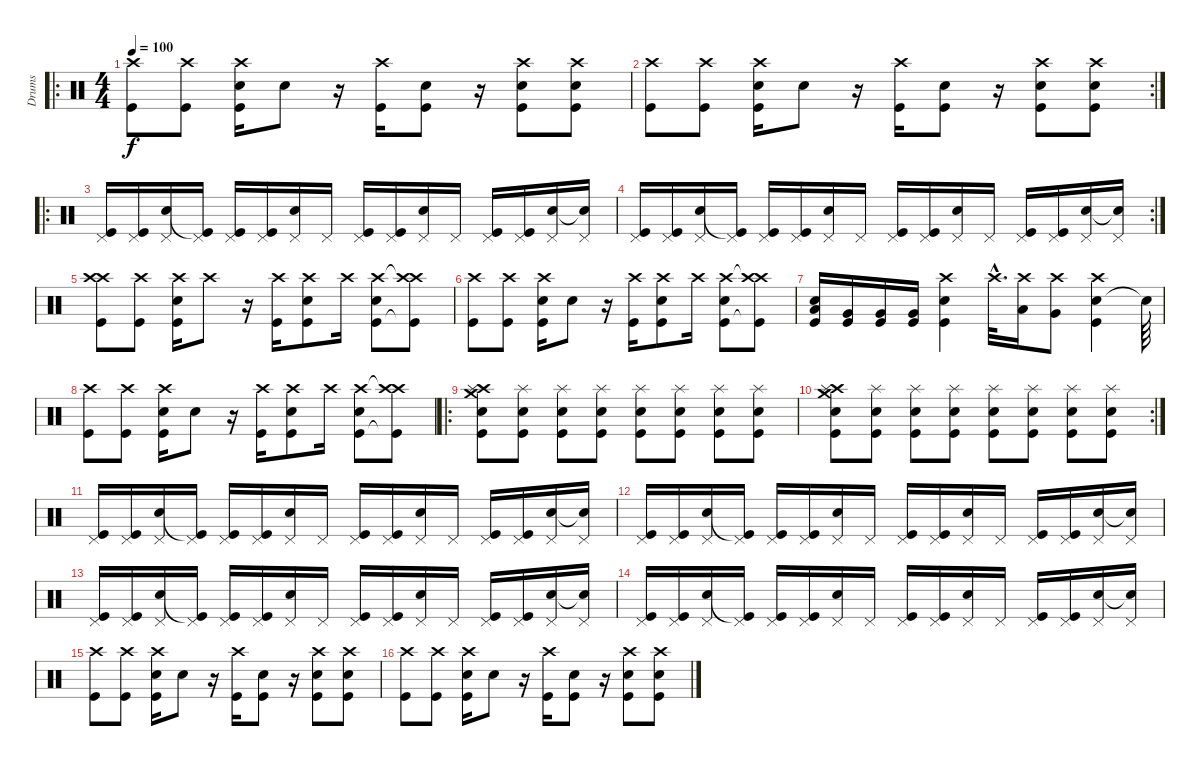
\track ("Drums" "Drums") {instrument percussion}
\staff {score}
\articulation defaults
\ro
\ts (4 4)
\tempo 100
\clef neutral
\ks c
("Crash high (hit)" "Kick (hit)").8{dy f} ("Kick (hit)" "Crash high (hit)").8 ("Crash high (hit)" "Kick (hit)" "Electric Snare (hit)").16 "Electric Snare (hit)".8 r.16 ("Kick (hit)" "Crash high (hit)").16 ("Electric Snare (hit)" "Kick (hit)").8 r.16 ("Electric Snare (hit)" "Kick (hit)" "Crash high (hit)").8 ("Electric Snare (hit)" "Kick (hit)" "Crash high (hit)").8 |
\rc 2
("Crash high (hit)" "Kick (hit)").8 ("Kick (hit)" "Crash high (hit)").8 ("Crash high (hit)" "Kick (hit)" "Electric Snare (hit)").16 "Electric Snare (hit)".8 r.16 ("Kick (hit)" "Crash high (hit)").16 ("Electric Snare (hit)" "Kick (hit)").8 r.16 ("Electric Snare (hit)" "Kick (hit)" "Crash high (hit)").8 ("Electric Snare (hit)" "Kick (hit)" "Crash high (hit)").8 |
\ro
("Kick (hit)" "Pedal Hi-Hat (hit)").16 ("Kick (hit)" "Pedal Hi-Hat (hit)").16 ("Electric Snare (hit)" "Pedal Hi-Hat (hit)").16 ("Kick (hit)"{t} "Pedal Hi-Hat (hit)").16 ("Kick (hit)" "Pedal Hi-Hat (hit)").16 ("Kick (hit)" "Pedal Hi-Hat (hit)").16 ("Electric Snare (hit)" "Pedal Hi-Hat (hit)").16 "Pedal Hi-Hat (hit)".16 ("Kick (hit)" "Pedal Hi-Hat (hit)").16 ("Kick (hit)" "Pedal Hi-Hat (hit)").16 ("Electric Snare (hit)" "Pedal Hi-Hat (hit)").16 "Pedal Hi-Hat (hit)".16 ("Kick (hit)" "Pedal Hi-Hat (hit)").16 ("Kick (hit)" "Pedal Hi-Hat (hit)").16 ("Electric Snare (hit)" "Pedal Hi-Hat (hit)").16 ("Snare (hit)"{t} "Pedal Hi-Hat (hit)").16 |
\rc 2
("Kick (hit)" "Pedal Hi-Hat (hit)").16 ("Kick (hit)" "Pedal Hi-Hat (hit)").16 ("Electric Snare (hit)" "Pedal Hi-Hat (hit)").16 ("Kick (hit)"{t} "Pedal Hi-Hat (hit)").16 ("Kick (hit)" "Pedal Hi-Hat (hit)").16 ("Kick (hit)" "Pedal Hi-Hat (hit)").16 ("Electric Snare (hit)" "Pedal Hi-Hat (hit)").16 "Pedal Hi-Hat (hit)".16 ("Kick (hit)" "Pedal Hi-Hat (hit)").16 ("Kick (hit)" "Pedal Hi-Hat (hit)").16 ("Electric Snare (hit)" "Pedal Hi-Hat (hit)").16 "Pedal Hi-Hat (hit)".16 ("Kick (hit)" "Pedal Hi-Hat (hit)").16 ("Kick (hit)" "Pedal Hi-Hat (hit)").16 ("Electric Snare (hit)" "Pedal Hi-Hat (hit)").16 ("Snare (hit)"{t} "Pedal Hi-Hat (hit)").16 |
("Crash high (hit)" "Kick (hit)" "Crash high (hit)").8 ("Kick (hit)" "Crash high (hit)").8 ("Crash high (hit)" "Kick (hit)" "Electric Snare (hit)").16 "Crash high (hit)".8 r.16 ("Kick (hit)" "Crash high (hit)").16 ("Electric Snare (hit)" "Kick (hit)" "Crash high (hit)").8 "Crash high (hit)".16 ("Electric Snare (hit)" "Kick (hit)" "Crash high (hit)").8 ("Crash high (hit)" "Kick (hit)"{t} "Crash high (hit)"{t}).8 |
("Crash high (hit)" "Kick (hit)").8 ("Kick (hit)" "Crash high (hit)").8 ("Crash high (hit)" "Kick (hit)" "Electric Snare (hit)").16 "Electric Snare (hit)".8 r.16 ("Kick (hit)" "Crash high (hit)").16 ("Electric Snare (hit)" "Kick (hit)" "Crash high (hit)").8 "Crash high (hit)".16 ("Electric Snare (hit)" "Kick (hit)" "Crash high (hit)").8 ("Crash high (hit)" "Kick (hit)"{t} "Crash high (hit)"{t}).8 |
("Low Tom (hit)" "Electric Snare (hit)" "Kick (hit)").16 ("Very Low Tom (hit)" "Kick (hit)").16 ("Very Low Tom (hit)" "Kick (hit)").16 ("Very Low Tom (hit)" "Kick (hit)").16 ("Crash high (hit)" "Electric Snare (hit)" "Kick (hit)").4 "Crash high (hit)"{hac}.32{d} ("Low Tom (hit)" "Crash high (hit)").16 ("Very Low Tom (hit)" "Crash high (hit)").8 ("Electric Snare (hit)" "Crash high (hit)" "Kick (hit)").4 "Snare (hit)"{t}.64 |
("Crash high (hit)" "Kick (hit)").8 ("Kick (hit)" "Crash high (hit)").8 ("Crash high (hit)" "Kick (hit)" "Electric Snare (hit)").16 "Electric Snare (hit)".8 r.16 ("Kick (hit)" "Crash high (hit)").16 ("Electric Snare (hit)" "Kick (hit)" "Crash high (hit)").8 "Crash high (hit)".16 ("Electric Snare (hit)" "Kick (hit)" "Crash high (hit)").8 ("Crash high (hit)" "Kick (hit)"{t} "Crash high (hit)"{t}).8 |
\ro
("Electric Snare (hit)" "Kick (hit)" "Crash high (hit)" "Splash (hit)" "Crash medium (hit)").8 ("Electric Snare (hit)" "Kick (hit)" "Splash (hit)").8 ("Electric Snare (hit)" "Kick (hit)" "Splash (hit)").8 ("Electric Snare (hit)" "Kick (hit)" "Splash (hit)").8 ("Electric Snare (hit)" "Kick (hit)" "Splash (hit)").8 ("Electric Snare (hit)" "Kick (hit)" "Splash (hit)").8 ("Electric Snare (hit)" "Kick (hit)" "Splash (hit)").8 ("Electric Snare (hit)" "Kick (hit)" "Splash (hit)").8 |
\rc 2
("Electric Snare (hit)" "Kick (hit)" "Crash high (hit)" "Splash (hit)" "Crash medium (hit)").8 ("Electric Snare (hit)" "Kick (hit)" "Splash (hit)").8 ("Electric Snare (hit)" "Kick (hit)" "Splash (hit)").8 ("Electric Snare (hit)" "Kick (hit)" "Splash (hit)").8 ("Electric Snare (hit)" "Kick (hit)" "Splash (hit)").8 ("Electric Snare (hit)" "Kick (hit)" "Splash (hit)").8 ("Electric Snare (hit)" "Kick (hit)" "Splash (hit)").8 ("Electric Snare (hit)" "Kick (hit)" "Splash (hit)").8 |
("Kick (hit)" "Pedal Hi-Hat (hit)").16 ("Kick (hit)" "Pedal Hi-Hat (hit)").16 ("Electric Snare (hit)" "Pedal Hi-Hat (hit)").16 ("Kick (hit)"{t} "Pedal Hi-Hat (hit)").16 ("Kick (hit)" "Pedal Hi-Hat (hit)").16 ("Kick (hit)" "Pedal Hi-Hat (hit)").16 ("Electric Snare (hit)" "Pedal Hi-Hat (hit)").16 "Pedal Hi-Hat (hit)".16 ("Kick (hit)" "Pedal Hi-Hat (hit)").16 ("Kick (hit)" "Pedal Hi-Hat (hit)").16 ("Electric Snare (hit)" "Pedal Hi-Hat (hit)").16 "Pedal Hi-Hat (hit)".16 ("Kick (hit)" "Pedal Hi-Hat (hit)").16 ("Kick (hit)" "Pedal Hi-Hat (hit)").16 ("Electric Snare (hit)" "Pedal Hi-Hat (hit)").16 ("Snare (hit)"{t} "Pedal Hi-Hat (hit)").16 |
("Kick (hit)" "Pedal Hi-Hat (hit)").16 ("Kick (hit)" "Pedal Hi-Hat (hit)").16 ("Electric Snare (hit)" "Pedal Hi-Hat (hit)").16 ("Kick (hit)"{t} "Pedal Hi-Hat (hit)").16 ("Kick (hit)" "Pedal Hi-Hat (hit)").16 ("Kick (hit)" "Pedal Hi-Hat (hit)").16 ("Electric Snare (hit)" "Pedal Hi-Hat (hit)").16 "Pedal Hi-Hat (hit)".16 ("Kick (hit)" "Pedal Hi-Hat (hit)").16 ("Kick (hit)" "Pedal Hi-Hat (hit)").16 ("Electric Snare (hit)" "Pedal Hi-Hat (hit)").16 "Pedal Hi-Hat (hit)".16 ("Kick (hit)" "Pedal Hi-Hat (hit)").16 ("Kick (hit)" "Pedal Hi-Hat (hit)").16 ("Electric Snare (hit)" "Pedal Hi-Hat (hit)").16 ("Snare (hit)"{t} "Pedal Hi-Hat (hit)").16 |
("Kick (hit)" "Pedal Hi-Hat (hit)").16 ("Kick (hit)" "Pedal Hi-Hat (hit)").16 ("Electric Snare (hit)" "Pedal Hi-Hat (hit)").16 ("Kick (hit)"{t} "Pedal Hi-Hat (hit)").16 ("Kick (hit)" "Pedal Hi-Hat (hit)").16 ("Kick (hit)" "Pedal Hi-Hat (hit)").16 ("Electric Snare (hit)" "Pedal Hi-Hat (hit)").16 "Pedal Hi-Hat (hit)".16 ("Kick (hit)" "Pedal Hi-Hat (hit)").16 ("Kick (hit)" "Pedal Hi-Hat (hit)").16 ("Electric Snare (hit)" "Pedal Hi-Hat (hit)").16 "Pedal Hi-Hat (hit)".16 ("Kick (hit)" "Pedal Hi-Hat (hit)").16 ("Kick (hit)" "Pedal Hi-Hat (hit)").16 ("Electric Snare (hit)" "Pedal Hi-Hat (hit)").16 ("Snare (hit)"{t} "Pedal Hi-Hat (hit)").16 |
("Kick (hit)" "Pedal Hi-Hat (hit)").16 ("Kick (hit)" "Pedal Hi-Hat (hit)").16 ("Electric Snare (hit)" "Pedal Hi-Hat (hit)").16 ("Kick (hit)"{t} "Pedal Hi-Hat (hit)").16 ("Kick (hit)" "Pedal Hi-Hat (hit)").16 ("Kick (hit)" "Pedal Hi-Hat (hit)").16 ("Electric Snare (hit)" "Pedal Hi-Hat (hit)").16 "Pedal Hi-Hat (hit)".16 ("Kick (hit)" "Pedal Hi-Hat (hit)").16 ("Kick (hit)" "Pedal Hi-Hat (hit)").16 ("Electric Snare (hit)" "Pedal Hi-Hat (hit)").16 "Pedal Hi-Hat (hit)".16 ("Kick (hit)" "Pedal Hi-Hat (hit)").16 ("Kick (hit)" "Pedal Hi-Hat (hit)").16 ("Electric Snare (hit)" "Pedal Hi-Hat (hit)").16 ("Snare (hit)"{t} "Pedal Hi-Hat (hit)").16 |
("Crash high (hit)" "Kick (hit)").8 ("Kick (hit)" "Crash high (hit)").8 ("Crash high (hit)" "Kick (hit)" "Electric Snare (hit)").16 "Electric Snare (hit)".8 r.16 ("Kick (hit)" "Crash high (hit)").16 ("Electric Snare (hit)" "Kick (hit)").8 r.16 ("Electric Snare (hit)" "Kick (hit)" "Crash high (hit)").8 ("Electric Snare (hit)" "Kick (hit)" "Crash high (hit)").8 |
("Crash high (hit)" "Kick (hit)").8 ("Kick (hit)" "Crash high (hit)").8 ("Crash high (hit)" "Kick (hit)" "Electric Snare (hit)").16 "Electric Snare (hit)".8 r.16 ("Kick (hit)" "Crash high (hit)").16 ("Electric Snare (hit)" "Kick (hit)").8 r.16 ("Electric Snare (hit)" "Kick (hit)" "Crash high (hit)").8 ("Electric Snare (hit)" "Kick (hit)" "Crash high (hit)").8
